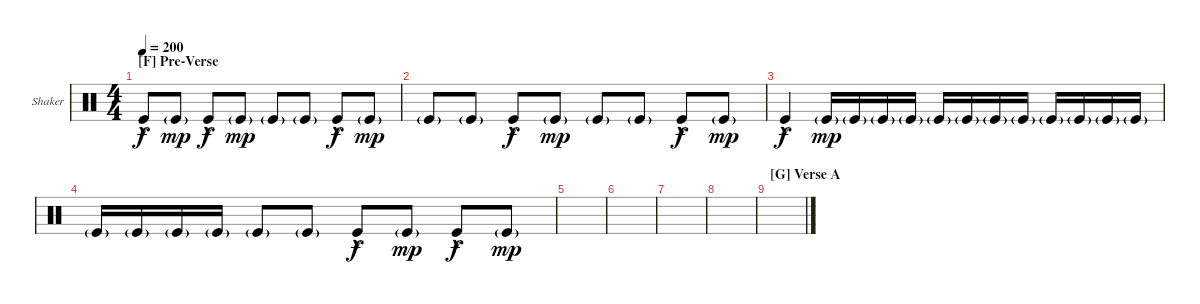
\defaultSystemsLayout 4
\bracketExtendMode groupsimilarinstruments
\firstSystemTrackNameOrientation horizontal
\otherSystemsTrackNameOrientation horizontal
\track ("Shaker" "Shaker") {instrument percussion}
\staff {score}
\articulation defaults
\ts (4 4)
\section ("F" "Pre-Verse")
\tempo 200
\clef neutral
\scale
0.333333
\ks c "Kick (hit)"{hac}.8{dy f} "Kick (hit)"{g}.8{dy mp} "Kick (hit)"{hac}.8{dy f} "Kick (hit)"{g}.8{dy mp} "Kick (hit)"{g}.8 "Kick (hit)"{g}.8 "Kick (hit)"{hac}.8{dy f} "Kick (hit)"{g}.8{dy mp}
|
\scale
0.333333 "Kick (hit)"{g}.8 "Kick (hit)"{g}.8 "Kick (hit)"{hac}.8{dy f} "Kick (hit)"{g}.8{dy mp} "Kick (hit)"{g}.8 "Kick (hit)"{g}.8 "Kick (hit)"{hac}.8{dy f} "Kick (hit)"{g}.8{dy mp} |
\scale
0.333333 "Kick (hit)"{hac}.4{dy f} "Kick (hit)"{g}.16{dy mp} "Kick (hit)"{g}.16 "Kick (hit)"{g}.16 "Kick (hit)"{g}.16 "Kick (hit)"{g}.16 "Kick (hit)"{g}.16 "Kick (hit)"{g}.16 "Kick (hit)"{g}.16 "Kick (hit)"{g}.16 "Kick (hit)"{g}.16 "Kick (hit)"{g}.16 "Kick (hit)"{g}.16 |
\scale
0.333333 "Kick (hit)"{g}.16 "Kick (hit)"{g}.16 "Kick (hit)"{g}.16 "Kick (hit)"{g}.16 "Kick (hit)"{g}.8 "Kick (hit)"{g}.8 "Kick (hit)"{hac}.8{dy f} "Kick (hit)"{g}.8{dy mp} "Kick (hit)"{hac}.8{dy f} "Kick (hit)"{g}.8{dy mp} |
\scale
0.333333 |
\scale
0.333333 |
\scale
0.333333 |
\scale
0.333333 |
\section ("G" "Verse A")
\scale
0.333333 |
\scale
0.333333 |
\scale
0.333333 |
\scale
0.333333 |
\scale
0.333333 |
\scale
0.333333 |
\scale
0.333333 |
\scale
0.333333
